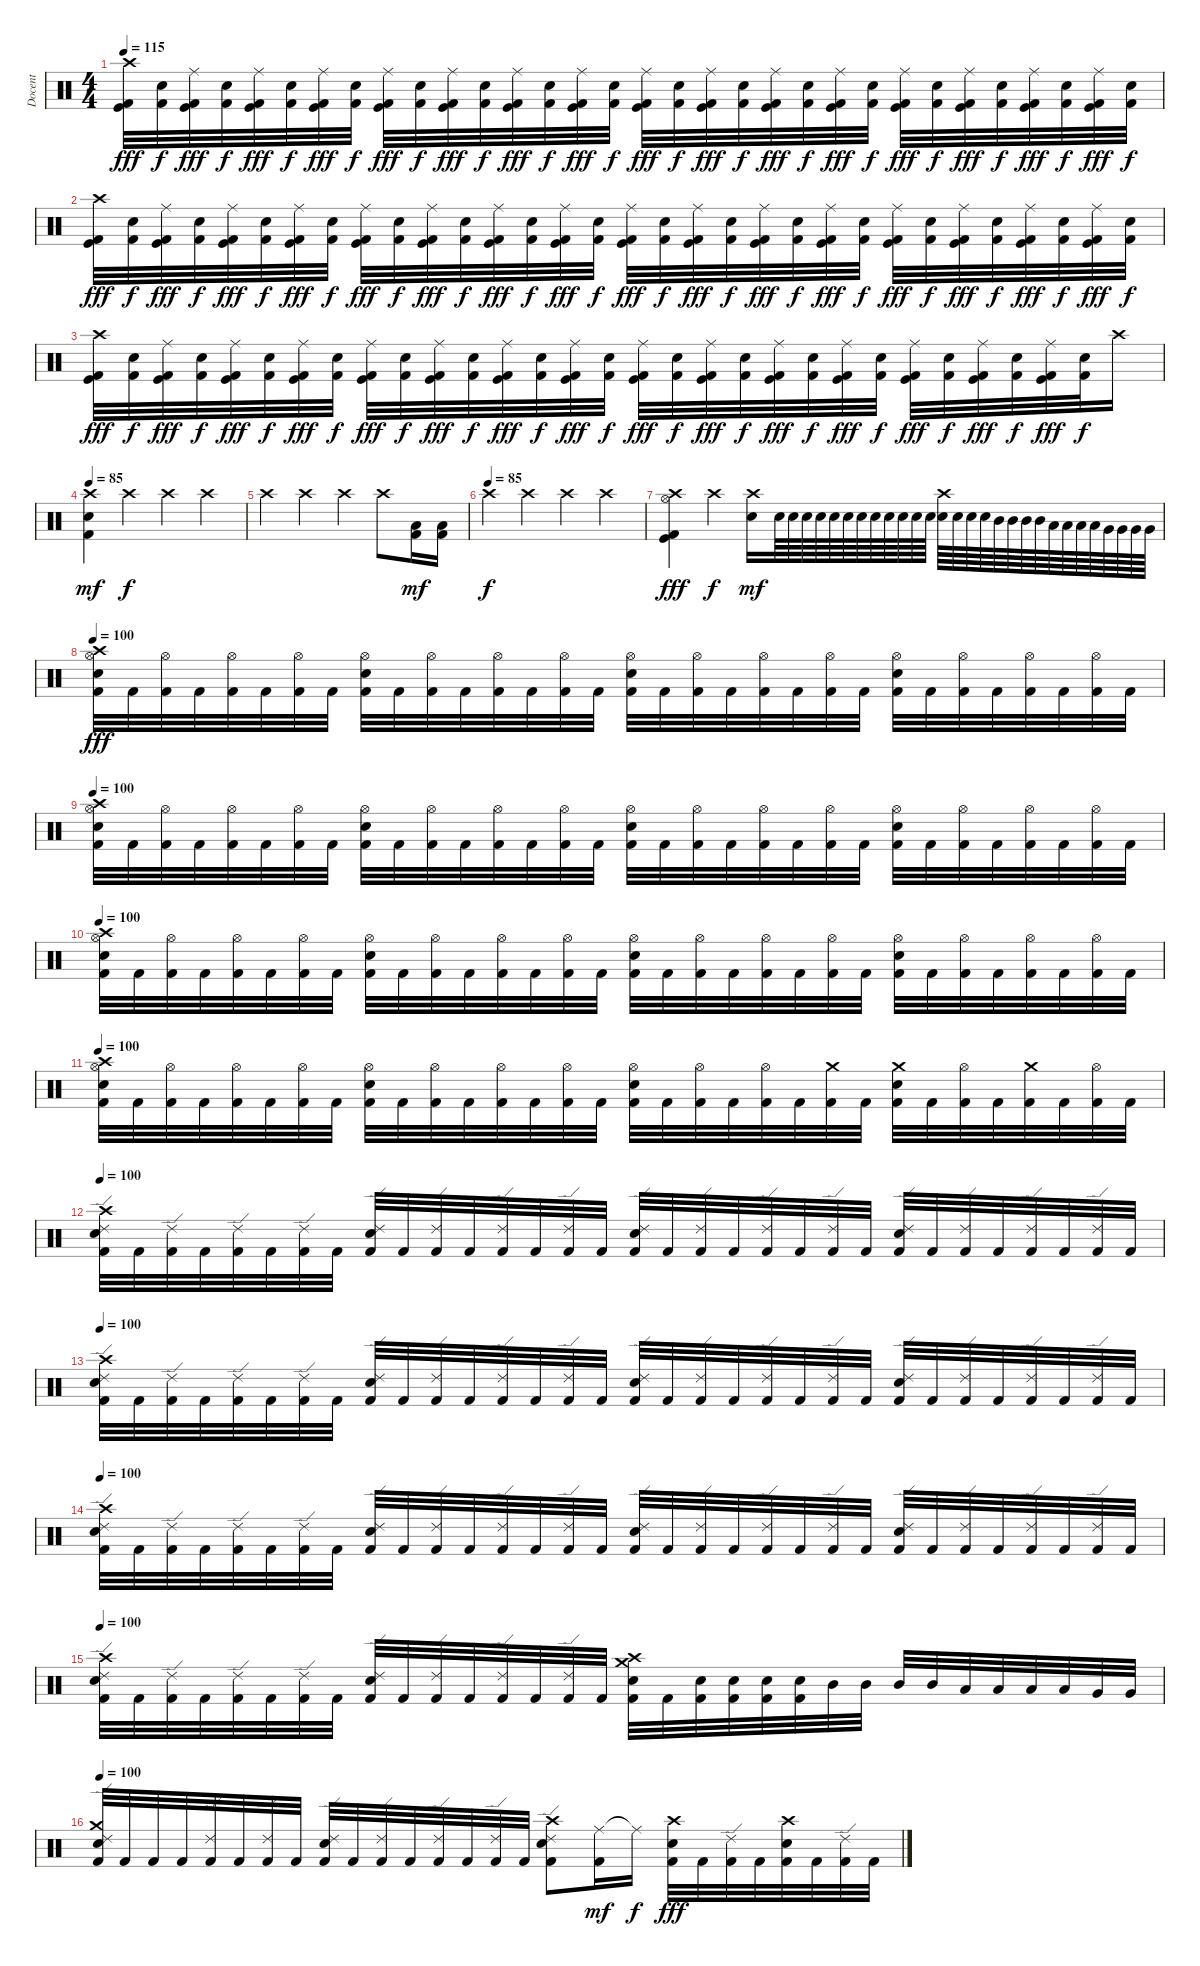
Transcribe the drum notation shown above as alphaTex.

\track ("Docent" "Docent") {instrument percussion}
\staff {score}
\articulation defaults
\ts (4 4)
\tempo 115
\clef neutral
\ks c
("Crash high (hit)" "Kick (hit)" "Kick (hit) 2").32{dy fff} ("Electric Snare (hit)" "Kick (hit) 2").32{dy f} ("Ride (middle)" "Kick (hit)" "Kick (hit) 2").32{dy fff} ("Electric Snare (hit)" "Kick (hit) 2").32{dy f} ("Ride (middle)" "Kick (hit)" "Kick (hit) 2").32{dy fff} ("Electric Snare (hit)" "Kick (hit) 2").32{dy f} ("Ride (middle)" "Kick (hit)" "Kick (hit) 2").32{dy fff} ("Electric Snare (hit)" "Kick (hit) 2").32{dy f} ("Ride (middle)" "Kick (hit)" "Kick (hit) 2").32{dy fff} ("Electric Snare (hit)" "Kick (hit) 2").32{dy f} ("Ride (middle)" "Kick (hit)" "Kick (hit) 2").32{dy fff} ("Electric Snare (hit)" "Kick (hit) 2").32{dy f} ("Ride (middle)" "Kick (hit)" "Kick (hit) 2").32{dy fff} ("Electric Snare (hit)" "Kick (hit) 2").32{dy f} ("Ride (middle)" "Kick (hit)" "Kick (hit) 2").32{dy fff} ("Electric Snare (hit)" "Kick (hit) 2").32{dy f} ("Ride (middle)" "Kick (hit)" "Kick (hit) 2").32{dy fff} ("Electric Snare (hit)" "Kick (hit) 2").32{dy f} ("Ride (middle)" "Kick (hit)" "Kick (hit) 2").32{dy fff} ("Electric Snare (hit)" "Kick (hit) 2").32{dy f} ("Ride (middle)" "Kick (hit)" "Kick (hit) 2").32{dy fff} ("Electric Snare (hit)" "Kick (hit) 2").32{dy f} ("Ride (middle)" "Kick (hit)" "Kick (hit) 2").32{dy fff} ("Electric Snare (hit)" "Kick (hit) 2").32{dy f} ("Ride (middle)" "Kick (hit)" "Kick (hit) 2").32{dy fff} ("Electric Snare (hit)" "Kick (hit) 2").32{dy f} ("Ride (middle)" "Kick (hit)" "Kick (hit) 2").32{dy fff} ("Electric Snare (hit)" "Kick (hit) 2").32{dy f} ("Ride (middle)" "Kick (hit)" "Kick (hit) 2").32{dy fff} ("Electric Snare (hit)" "Kick (hit) 2").32{dy f} ("Ride (middle)" "Kick (hit)" "Kick (hit) 2").32{dy fff} ("Electric Snare (hit)" "Kick (hit) 2").32{dy f} |
("Crash high (hit)" "Kick (hit)" "Kick (hit) 2").32{dy fff} ("Electric Snare (hit)" "Kick (hit) 2").32{dy f} ("Ride (middle)" "Kick (hit)" "Kick (hit) 2").32{dy fff} ("Electric Snare (hit)" "Kick (hit) 2").32{dy f} ("Ride (middle)" "Kick (hit)" "Kick (hit) 2").32{dy fff} ("Electric Snare (hit)" "Kick (hit) 2").32{dy f} ("Ride (middle)" "Kick (hit)" "Kick (hit) 2").32{dy fff} ("Electric Snare (hit)" "Kick (hit) 2").32{dy f} ("Ride (middle)" "Kick (hit)" "Kick (hit) 2").32{dy fff} ("Electric Snare (hit)" "Kick (hit) 2").32{dy f} ("Ride (middle)" "Kick (hit)" "Kick (hit) 2").32{dy fff} ("Electric Snare (hit)" "Kick (hit) 2").32{dy f} ("Ride (middle)" "Kick (hit)" "Kick (hit) 2").32{dy fff} ("Electric Snare (hit)" "Kick (hit) 2").32{dy f} ("Ride (middle)" "Kick (hit)" "Kick (hit) 2").32{dy fff} ("Electric Snare (hit)" "Kick (hit) 2").32{dy f} ("Ride (middle)" "Kick (hit)" "Kick (hit) 2").32{dy fff} ("Electric Snare (hit)" "Kick (hit) 2").32{dy f} ("Ride (middle)" "Kick (hit)" "Kick (hit) 2").32{dy fff} ("Electric Snare (hit)" "Kick (hit) 2").32{dy f} ("Ride (middle)" "Kick (hit)" "Kick (hit) 2").32{dy fff} ("Electric Snare (hit)" "Kick (hit) 2").32{dy f} ("Ride (middle)" "Kick (hit)" "Kick (hit) 2").32{dy fff} ("Electric Snare (hit)" "Kick (hit) 2").32{dy f} ("Ride (middle)" "Kick (hit)" "Kick (hit) 2").32{dy fff} ("Electric Snare (hit)" "Kick (hit) 2").32{dy f} ("Ride (middle)" "Kick (hit)" "Kick (hit) 2").32{dy fff} ("Electric Snare (hit)" "Kick (hit) 2").32{dy f} ("Ride (middle)" "Kick (hit)" "Kick (hit) 2").32{dy fff} ("Electric Snare (hit)" "Kick (hit) 2").32{dy f} ("Ride (middle)" "Kick (hit)" "Kick (hit) 2").32{dy fff} ("Electric Snare (hit)" "Kick (hit) 2").32{dy f} |
("Crash high (hit)" "Kick (hit)" "Kick (hit) 2").32{dy fff} ("Electric Snare (hit)" "Kick (hit) 2").32{dy f} ("Ride (middle)" "Kick (hit)" "Kick (hit) 2").32{dy fff} ("Electric Snare (hit)" "Kick (hit) 2").32{dy f} ("Ride (middle)" "Kick (hit)" "Kick (hit) 2").32{dy fff} ("Electric Snare (hit)" "Kick (hit) 2").32{dy f} ("Ride (middle)" "Kick (hit)" "Kick (hit) 2").32{dy fff} ("Electric Snare (hit)" "Kick (hit) 2").32{dy f} ("Ride (middle)" "Kick (hit)" "Kick (hit) 2").32{dy fff} ("Electric Snare (hit)" "Kick (hit) 2").32{dy f} ("Ride (middle)" "Kick (hit)" "Kick (hit) 2").32{dy fff} ("Electric Snare (hit)" "Kick (hit) 2").32{dy f} ("Ride (middle)" "Kick (hit)" "Kick (hit) 2").32{dy fff} ("Electric Snare (hit)" "Kick (hit) 2").32{dy f} ("Ride (middle)" "Kick (hit)" "Kick (hit) 2").32{dy fff} ("Electric Snare (hit)" "Kick (hit) 2").32{dy f} ("Ride (middle)" "Kick (hit)" "Kick (hit) 2").32{dy fff} ("Electric Snare (hit)" "Kick (hit) 2").32{dy f} ("Ride (middle)" "Kick (hit)" "Kick (hit) 2").32{dy fff} ("Electric Snare (hit)" "Kick (hit) 2").32{dy f} ("Ride (middle)" "Kick (hit)" "Kick (hit) 2").32{dy fff} ("Electric Snare (hit)" "Kick (hit) 2").32{dy f} ("Ride (middle)" "Kick (hit)" "Kick (hit) 2").32{dy fff} ("Electric Snare (hit)" "Kick (hit) 2").32{dy f} ("Ride (middle)" "Kick (hit)" "Kick (hit) 2").32{dy fff} ("Electric Snare (hit)" "Kick (hit) 2").32{dy f} ("Ride (middle)" "Kick (hit)" "Kick (hit) 2").32{dy fff} ("Electric Snare (hit)" "Kick (hit) 2").32{dy f} ("Ride (middle)" "Kick (hit)" "Kick (hit) 2").32{dy fff} ("Electric Snare (hit)" "Kick (hit) 2").32{dy f} "Crash high (hit)".16 |
\tempo 85
("Kick (hit) 2" "Electric Snare (hit)" "Crash high (hit)").4{dy mf} "Crash high (hit)".4{dy f} "Crash high (hit)".4 "Crash high (hit)".4 |
"Crash high (hit)".4 "Crash high (hit)".4 "Crash high (hit)".4 "Crash high (hit)".8 ("Kick (hit) 2" "Low Tom (hit)").16{dy mf} ("Kick (hit) 2" "Low Tom (hit)").16 |
\tempo (85)
"Crash high (hit)".4{dy f} "Crash high (hit)".4 "Crash high (hit)".4 "Crash high (hit)".4 |
("Kick (hit) 2" "Hi-Hat (open)" "Kick (hit)" "Crash high (hit)").4{dy fff} "Crash high (hit)".4{dy f} ("Crash high (hit)" "Electric Snare (hit)").16{dy mf} "Electric Snare (hit)".64 "Electric Snare (hit)".64 "Electric Snare (hit)".64 "Electric Snare (hit)".64 "Electric Snare (hit)".64 "Electric Snare (hit)".64 "Electric Snare (hit)".64 "Electric Snare (hit)".64 "Electric Snare (hit)".64 "Electric Snare (hit)".64 "Electric Snare (hit)".64 "Electric Snare (hit)".64 ("Crash high (hit)" "Electric Snare (hit)").64 "Electric Snare (hit)".64 "Electric Snare (hit)".64 "Electric Snare (hit)".64 "Mid Tom (hit)".64 "Mid Tom (hit)".64 "Mid Tom (hit)".64 "Mid Tom (hit)".64 "Low Tom (hit)".64 "Low Tom (hit)".64 "Low Tom (hit)".64 "Low Tom (hit)".64 "Very Low Tom (hit)".64 "Very Low Tom (hit)".64 "Very Low Tom (hit)".64 "Very Low Tom (hit)".64 |
\tempo 100
("Crash high (hit)" "Hi-Hat (open)" "Electric Snare (hit)" "Kick (hit) 2").32{dy fff} "Kick (hit) 2".32 ("Hi-Hat (open)" "Kick (hit) 2").32 "Kick (hit) 2".32 ("Hi-Hat (open)" "Kick (hit) 2").32 "Kick (hit) 2".32 ("Hi-Hat (open)" "Kick (hit) 2").32 "Kick (hit) 2".32 ("Hi-Hat (open)" "Electric Snare (hit)" "Kick (hit) 2").32 "Kick (hit) 2".32 ("Hi-Hat (open)" "Kick (hit) 2").32 "Kick (hit) 2".32 ("Hi-Hat (open)" "Kick (hit) 2").32 "Kick (hit) 2".32 ("Hi-Hat (open)" "Kick (hit) 2").32 "Kick (hit) 2".32 ("Hi-Hat (open)" "Electric Snare (hit)" "Kick (hit) 2").32 "Kick (hit) 2".32 ("Hi-Hat (open)" "Kick (hit) 2").32 "Kick (hit) 2".32 ("Hi-Hat (open)" "Kick (hit) 2").32 "Kick (hit) 2".32 ("Hi-Hat (open)" "Kick (hit) 2").32 "Kick (hit) 2".32 ("Hi-Hat (open)" "Electric Snare (hit)" "Kick (hit) 2").32 "Kick (hit) 2".32 ("Hi-Hat (open)" "Kick (hit) 2").32 "Kick (hit) 2".32 ("Hi-Hat (open)" "Kick (hit) 2").32 "Kick (hit) 2".32 ("Hi-Hat (open)" "Kick (hit) 2").32 "Kick (hit) 2".32 |
\tempo 100
("Crash high (hit)" "Hi-Hat (open)" "Electric Snare (hit)" "Kick (hit) 2").32 "Kick (hit) 2".32 ("Hi-Hat (open)" "Kick (hit) 2").32 "Kick (hit) 2".32 ("Hi-Hat (open)" "Kick (hit) 2").32 "Kick (hit) 2".32 ("Hi-Hat (open)" "Kick (hit) 2").32 "Kick (hit) 2".32 ("Hi-Hat (open)" "Electric Snare (hit)" "Kick (hit) 2").32 "Kick (hit) 2".32 ("Hi-Hat (open)" "Kick (hit) 2").32 "Kick (hit) 2".32 ("Hi-Hat (open)" "Kick (hit) 2").32 "Kick (hit) 2".32 ("Hi-Hat (open)" "Kick (hit) 2").32 "Kick (hit) 2".32 ("Hi-Hat (open)" "Electric Snare (hit)" "Kick (hit) 2").32 "Kick (hit) 2".32 ("Hi-Hat (open)" "Kick (hit) 2").32 "Kick (hit) 2".32 ("Hi-Hat (open)" "Kick (hit) 2").32 "Kick (hit) 2".32 ("Hi-Hat (open)" "Kick (hit) 2").32 "Kick (hit) 2".32 ("Hi-Hat (open)" "Electric Snare (hit)" "Kick (hit) 2").32 "Kick (hit) 2".32 ("Hi-Hat (open)" "Kick (hit) 2").32 "Kick (hit) 2".32 ("Hi-Hat (open)" "Kick (hit) 2").32 "Kick (hit) 2".32 ("Hi-Hat (open)" "Kick (hit) 2").32 "Kick (hit) 2".32 |
\tempo 100
("Crash high (hit)" "Hi-Hat (open)" "Electric Snare (hit)" "Kick (hit) 2").32 "Kick (hit) 2".32 ("Hi-Hat (open)" "Kick (hit) 2").32 "Kick (hit) 2".32 ("Hi-Hat (open)" "Kick (hit) 2").32 "Kick (hit) 2".32 ("Hi-Hat (open)" "Kick (hit) 2").32 "Kick (hit) 2".32 ("Hi-Hat (open)" "Electric Snare (hit)" "Kick (hit) 2").32 "Kick (hit) 2".32 ("Hi-Hat (open)" "Kick (hit) 2").32 "Kick (hit) 2".32 ("Hi-Hat (open)" "Kick (hit) 2").32 "Kick (hit) 2".32 ("Hi-Hat (open)" "Kick (hit) 2").32 "Kick (hit) 2".32 ("Hi-Hat (open)" "Electric Snare (hit)" "Kick (hit) 2").32 "Kick (hit) 2".32 ("Hi-Hat (open)" "Kick (hit) 2").32 "Kick (hit) 2".32 ("Hi-Hat (open)" "Kick (hit) 2").32 "Kick (hit) 2".32 ("Hi-Hat (open)" "Kick (hit) 2").32 "Kick (hit) 2".32 ("Hi-Hat (open)" "Electric Snare (hit)" "Kick (hit) 2").32 "Kick (hit) 2".32 ("Hi-Hat (open)" "Kick (hit) 2").32 "Kick (hit) 2".32 ("Hi-Hat (open)" "Kick (hit) 2").32 "Kick (hit) 2".32 ("Hi-Hat (open)" "Kick (hit) 2").32 "Kick (hit) 2".32 |
\tempo 100
("Crash high (hit)" "Hi-Hat (open)" "Electric Snare (hit)" "Kick (hit) 2").32 "Kick (hit) 2".32 ("Hi-Hat (open)" "Kick (hit) 2").32 "Kick (hit) 2".32 ("Hi-Hat (open)" "Kick (hit) 2").32 "Kick (hit) 2".32 ("Hi-Hat (open)" "Kick (hit) 2").32 "Kick (hit) 2".32 ("Hi-Hat (open)" "Electric Snare (hit)" "Kick (hit) 2").32 "Kick (hit) 2".32 ("Hi-Hat (open)" "Kick (hit) 2").32 "Kick (hit) 2".32 ("Hi-Hat (open)" "Kick (hit) 2").32 "Kick (hit) 2".32 ("Hi-Hat (open)" "Kick (hit) 2").32 "Kick (hit) 2".32 ("Hi-Hat (open)" "Electric Snare (hit)" "Kick (hit) 2").32 "Kick (hit) 2".32 ("Hi-Hat (open)" "Kick (hit) 2").32 "Kick (hit) 2".32 ("Hi-Hat (open)" "Kick (hit) 2").32 "Kick (hit) 2".32 ("Crash medium (hit)" "Kick (hit) 2").32 "Kick (hit) 2".32 ("Crash medium (hit)" "Electric Snare (hit)" "Kick (hit) 2").32 "Kick (hit) 2".32 ("Hi-Hat (open)" "Kick (hit) 2").32 "Kick (hit) 2".32 ("Crash medium (hit)" "Kick (hit) 2").32 "Kick (hit) 2".32 ("Hi-Hat (open)" "Kick (hit) 2").32 "Kick (hit) 2".32 |
\tempo 100
("Crash high (hit)" "Ride (edge) 2" "Electric Snare (hit)" "Kick (hit) 2").32 "Kick (hit) 2".32 ("Ride (edge) 2" "Kick (hit) 2").32 "Kick (hit) 2".32 ("Ride (edge) 2" "Kick (hit) 2").32 "Kick (hit) 2".32 ("Ride (edge) 2" "Kick (hit) 2").32 "Kick (hit) 2".32 ("Ride (edge) 2" "Electric Snare (hit)" "Kick (hit) 2").32 "Kick (hit) 2".32 ("Ride (edge) 2" "Kick (hit) 2").32 "Kick (hit) 2".32 ("Ride (edge) 2" "Kick (hit) 2").32 "Kick (hit) 2".32 ("Ride (edge) 2" "Kick (hit) 2").32 "Kick (hit) 2".32 ("Ride (edge) 2" "Electric Snare (hit)" "Kick (hit) 2").32 "Kick (hit) 2".32 ("Ride (edge) 2" "Kick (hit) 2").32 "Kick (hit) 2".32 ("Ride (edge) 2" "Kick (hit) 2").32 "Kick (hit) 2".32 ("Ride (edge) 2" "Kick (hit) 2").32 "Kick (hit) 2".32 ("Ride (edge) 2" "Electric Snare (hit)" "Kick (hit) 2").32 "Kick (hit) 2".32 ("Ride (edge) 2" "Kick (hit) 2").32 "Kick (hit) 2".32 ("Ride (edge) 2" "Kick (hit) 2").32 "Kick (hit) 2".32 ("Ride (edge) 2" "Kick (hit) 2").32 "Kick (hit) 2".32 |
\tempo 100
("Crash high (hit)" "Ride (edge) 2" "Electric Snare (hit)" "Kick (hit) 2").32 "Kick (hit) 2".32 ("Ride (edge) 2" "Kick (hit) 2").32 "Kick (hit) 2".32 ("Ride (edge) 2" "Kick (hit) 2").32 "Kick (hit) 2".32 ("Ride (edge) 2" "Kick (hit) 2").32 "Kick (hit) 2".32 ("Ride (edge) 2" "Electric Snare (hit)" "Kick (hit) 2").32 "Kick (hit) 2".32 ("Ride (edge) 2" "Kick (hit) 2").32 "Kick (hit) 2".32 ("Ride (edge) 2" "Kick (hit) 2").32 "Kick (hit) 2".32 ("Ride (edge) 2" "Kick (hit) 2").32 "Kick (hit) 2".32 ("Ride (edge) 2" "Electric Snare (hit)" "Kick (hit) 2").32 "Kick (hit) 2".32 ("Ride (edge) 2" "Kick (hit) 2").32 "Kick (hit) 2".32 ("Ride (edge) 2" "Kick (hit) 2").32 "Kick (hit) 2".32 ("Ride (edge) 2" "Kick (hit) 2").32 "Kick (hit) 2".32 ("Ride (edge) 2" "Electric Snare (hit)" "Kick (hit) 2").32 "Kick (hit) 2".32 ("Ride (edge) 2" "Kick (hit) 2").32 "Kick (hit) 2".32 ("Ride (edge) 2" "Kick (hit) 2").32 "Kick (hit) 2".32 ("Ride (edge) 2" "Kick (hit) 2").32 "Kick (hit) 2".32 |
\tempo 100
("Crash high (hit)" "Ride (edge) 2" "Electric Snare (hit)" "Kick (hit) 2").32 "Kick (hit) 2".32 ("Ride (edge) 2" "Kick (hit) 2").32 "Kick (hit) 2".32 ("Ride (edge) 2" "Kick (hit) 2").32 "Kick (hit) 2".32 ("Ride (edge) 2" "Kick (hit) 2").32 "Kick (hit) 2".32 ("Ride (edge) 2" "Electric Snare (hit)" "Kick (hit) 2").32 "Kick (hit) 2".32 ("Ride (edge) 2" "Kick (hit) 2").32 "Kick (hit) 2".32 ("Ride (edge) 2" "Kick (hit) 2").32 "Kick (hit) 2".32 ("Ride (edge) 2" "Kick (hit) 2").32 "Kick (hit) 2".32 ("Ride (edge) 2" "Electric Snare (hit)" "Kick (hit) 2").32 "Kick (hit) 2".32 ("Ride (edge) 2" "Kick (hit) 2").32 "Kick (hit) 2".32 ("Ride (edge) 2" "Kick (hit) 2").32 "Kick (hit) 2".32 ("Ride (edge) 2" "Kick (hit) 2").32 "Kick (hit) 2".32 ("Ride (edge) 2" "Electric Snare (hit)" "Kick (hit) 2").32 "Kick (hit) 2".32 ("Ride (edge) 2" "Kick (hit) 2").32 "Kick (hit) 2".32 ("Ride (edge) 2" "Kick (hit) 2").32 "Kick (hit) 2".32 ("Ride (edge) 2" "Kick (hit) 2").32 "Kick (hit) 2".32 |
\tempo 100
("Crash high (hit)" "Ride (edge) 2" "Electric Snare (hit)" "Kick (hit) 2").32 "Kick (hit) 2".32 ("Ride (edge) 2" "Kick (hit) 2").32 "Kick (hit) 2".32 ("Ride (edge) 2" "Kick (hit) 2").32 "Kick (hit) 2".32 ("Ride (edge) 2" "Kick (hit) 2").32 "Kick (hit) 2".32 ("Ride (edge) 2" "Electric Snare (hit)" "Kick (hit) 2").32 "Kick (hit) 2".32 ("Ride (edge) 2" "Kick (hit) 2").32 "Kick (hit) 2".32 ("Ride (edge) 2" "Kick (hit) 2").32 "Kick (hit) 2".32 ("Ride (edge) 2" "Kick (hit) 2").32 "Kick (hit) 2".32 ("Crash high (hit)" "Crash medium (hit)" "Electric Snare (hit)" "Kick (hit) 2").32 "Kick (hit) 2".32 ("Electric Snare (hit)" "Kick (hit) 2").32 ("Electric Snare (hit)" "Kick (hit) 2").32 ("Electric Snare (hit)" "Kick (hit) 2").32 ("Electric Snare (hit)" "Kick (hit) 2").32 "Mid Tom (hit)".32 "Mid Tom (hit)".32 "Mid Tom (hit)".32 "Mid Tom (hit)".32 "Low Tom (hit)".32 "Low Tom (hit)".32 "Low Tom (hit)".32 "Low Tom (hit)".32 "Very Low Tom (hit)".32 "Very Low Tom (hit)".32 |
\tempo 100
("Crash medium (hit)" "Ride (edge) 2" "Electric Snare (hit)" "Kick (hit) 2").32 "Kick (hit) 2".32 "Kick (hit) 2".32 "Kick (hit) 2".32 ("Ride (edge) 2" "Kick (hit) 2").32 "Kick (hit) 2".32 ("Ride (edge) 2" "Kick (hit) 2").32 "Kick (hit) 2".32 ("Ride (edge) 2" "Electric Snare (hit)" "Kick (hit) 2").32 "Kick (hit) 2".32 ("Ride (edge) 2" "Kick (hit) 2").32 "Kick (hit) 2".32 ("Ride (edge) 2" "Kick (hit) 2").32 "Kick (hit) 2".32 ("Ride (edge) 2" "Kick (hit) 2").32 "Kick (hit) 2".32 ("Crash high (hit)" "Ride (edge) 2" "Electric Snare (hit)" "Kick (hit) 2").8 ("Ride (middle)" "Kick (hit) 2").16{dy mf} "Ride (middle)"{t}.16{dy f} ("Crash high (hit)" "Electric Snare (hit)" "Kick (hit) 2").32{dy fff} "Kick (hit) 2".32 ("Ride (edge) 2" "Kick (hit) 2").32 "Kick (hit) 2".32 ("Crash high (hit)" "Electric Snare (hit)" "Kick (hit) 2").32 "Kick (hit) 2".32 ("Ride (edge) 2" "Kick (hit) 2").32 "Kick (hit) 2".32
